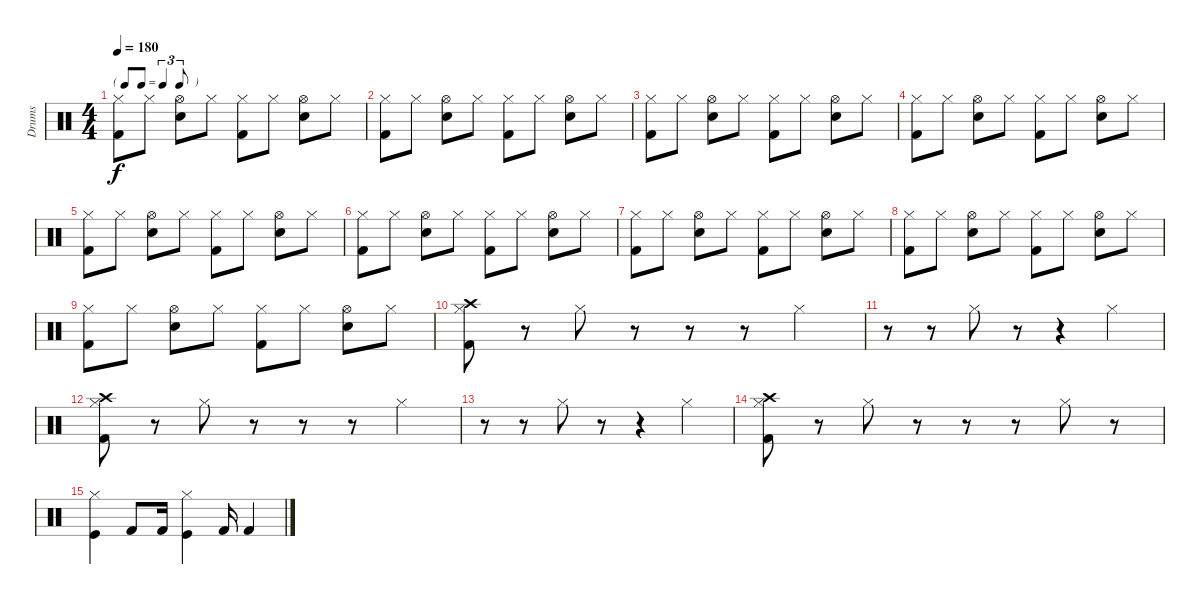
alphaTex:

\track ("Drums" "Drums") {instrument percussion}
\staff {score}
\articulation defaults
\ts (4 4)
\tf triplet8th
\tempo 180
\clef neutral
\ks c
("Hi-Hat (closed)" "Kick (hit) 2").8{dy f} "Hi-Hat (closed)".8 ("Hi-Hat (open)" "Snare (hit) 2").8 "Hi-Hat (closed)".8 ("Hi-Hat (closed)" "Kick (hit) 2").8 "Hi-Hat (closed)".8 ("Hi-Hat (open)" "Snare (hit) 2").8 "Hi-Hat (closed)".8 |
("Hi-Hat (closed)" "Kick (hit) 2").8 "Hi-Hat (closed)".8 ("Hi-Hat (open)" "Snare (hit) 2").8 "Hi-Hat (closed)".8 ("Hi-Hat (closed)" "Kick (hit) 2").8 "Hi-Hat (closed)".8 ("Hi-Hat (open)" "Snare (hit) 2").8 "Hi-Hat (closed)".8 |
("Hi-Hat (closed)" "Kick (hit) 2").8 "Hi-Hat (closed)".8 ("Hi-Hat (open)" "Snare (hit) 2").8 "Hi-Hat (closed)".8 ("Hi-Hat (closed)" "Kick (hit) 2").8 "Hi-Hat (closed)".8 ("Hi-Hat (open)" "Snare (hit) 2").8 "Hi-Hat (closed)".8 |
("Hi-Hat (closed)" "Kick (hit) 2").8 "Hi-Hat (closed)".8 ("Hi-Hat (open)" "Snare (hit) 2").8 "Hi-Hat (closed)".8 ("Hi-Hat (closed)" "Kick (hit) 2").8 "Hi-Hat (closed)".8 ("Hi-Hat (open)" "Snare (hit) 2").8 "Hi-Hat (closed)".8 |
("Hi-Hat (closed)" "Kick (hit) 2").8 "Hi-Hat (closed)".8 ("Hi-Hat (open)" "Snare (hit) 2").8 "Hi-Hat (closed)".8 ("Hi-Hat (closed)" "Kick (hit) 2").8 "Hi-Hat (closed)".8 ("Hi-Hat (open)" "Snare (hit) 2").8 "Hi-Hat (closed)".8 |
("Hi-Hat (closed)" "Kick (hit) 2").8 "Hi-Hat (closed)".8 ("Hi-Hat (open)" "Snare (hit) 2").8 "Hi-Hat (closed)".8 ("Hi-Hat (closed)" "Kick (hit) 2").8 "Hi-Hat (closed)".8 ("Hi-Hat (open)" "Snare (hit) 2").8 "Hi-Hat (closed)".8 |
("Hi-Hat (closed)" "Kick (hit) 2").8 "Hi-Hat (closed)".8 ("Hi-Hat (open)" "Snare (hit) 2").8 "Hi-Hat (closed)".8 ("Hi-Hat (closed)" "Kick (hit) 2").8 "Hi-Hat (closed)".8 ("Hi-Hat (open)" "Snare (hit) 2").8 "Hi-Hat (closed)".8 |
("Hi-Hat (closed)" "Kick (hit) 2").8 "Hi-Hat (closed)".8 ("Hi-Hat (open)" "Snare (hit) 2").8 "Hi-Hat (closed)".8 ("Hi-Hat (closed)" "Kick (hit) 2").8 "Hi-Hat (closed)".8 ("Hi-Hat (open)" "Snare (hit) 2").8 "Hi-Hat (closed)".8 |
("Hi-Hat (closed)" "Kick (hit) 2").8 "Hi-Hat (closed)".8 ("Hi-Hat (open)" "Snare (hit) 2").8 "Hi-Hat (closed)".8 ("Hi-Hat (closed)" "Kick (hit) 2").8 "Hi-Hat (closed)".8 ("Hi-Hat (open)" "Snare (hit) 2").8 "Hi-Hat (closed)".8 |
("Crash high (hit)" "Kick (hit) 2" "Hi-Hat (closed)").8 r.8 "Hi-Hat (closed)".8 r.8 r.8 r.8 "Hi-Hat (closed)".4 |
r.8 r.8 "Hi-Hat (closed)".8 r.8 r.4 "Hi-Hat (closed)".4 |
("Crash high (hit)" "Kick (hit) 2" "Hi-Hat (closed)").8 r.8 "Hi-Hat (closed)".8 r.8 r.8 r.8 "Hi-Hat (closed)".4 |
r.8 r.8 "Hi-Hat (closed)".8 r.8 r.4 "Hi-Hat (closed)".4 |
("Crash high (hit)" "Kick (hit) 2" "Hi-Hat (closed)").8 r.8 "Hi-Hat (closed)".8 r.8 r.8 r.8 "Hi-Hat (closed)".8 r.8 |
("Hi-Hat (closed)" "Kick (hit)").4 "Kick (hit) 2".8 "Kick (hit) 2".16 ("Kick (hit)" "Hi-Hat (closed)").4 "Kick (hit) 2".16 "Kick (hit) 2".4
